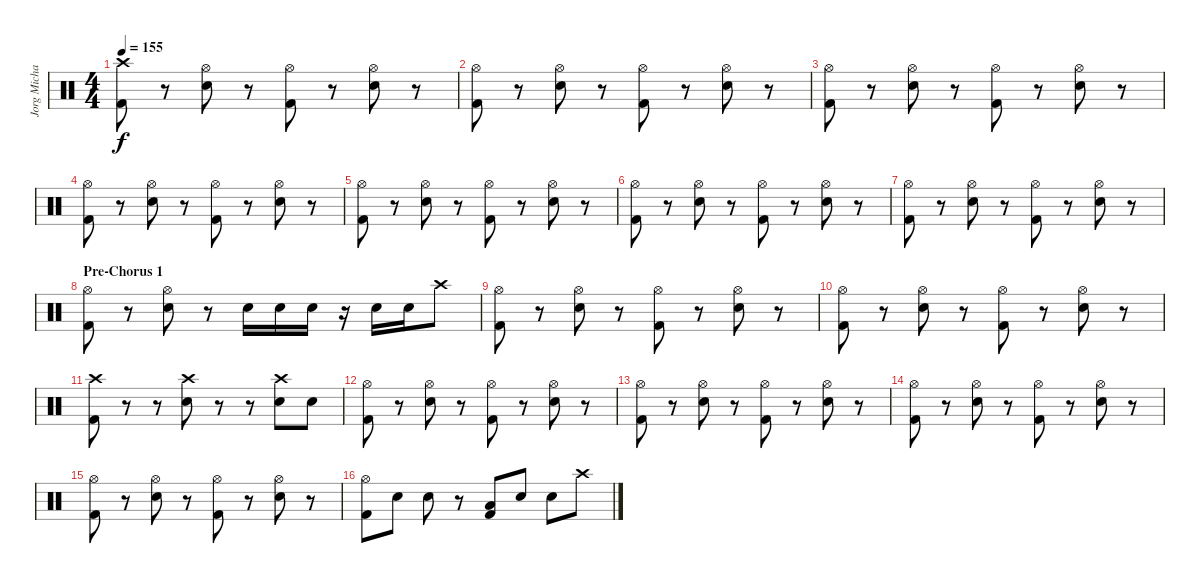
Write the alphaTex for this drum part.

\track ("Jorg Michael - Batteria" "Jorg Micha") {instrument percussion}
\staff {score}
\articulation defaults
\ts (4 4)
\tempo 155
\clef neutral
\ks c
("Kick (hit) 2" "Crash high (hit)").8{dy f} r.8 ("Snare (hit) 2" "Hi-Hat (open)").8 r.8 ("Kick (hit) 2" "Hi-Hat (open)").8 r.8 ("Snare (hit) 2" "Hi-Hat (open)").8 r.8 |
("Kick (hit) 2" "Hi-Hat (open)").8 r.8 ("Snare (hit) 2" "Hi-Hat (open)").8 r.8 ("Kick (hit) 2" "Hi-Hat (open)").8 r.8 ("Snare (hit) 2" "Hi-Hat (open)").8 r.8 |
("Kick (hit) 2" "Hi-Hat (open)").8 r.8 ("Snare (hit) 2" "Hi-Hat (open)").8 r.8 ("Kick (hit) 2" "Hi-Hat (open)").8 r.8 ("Snare (hit) 2" "Hi-Hat (open)").8 r.8 |
("Kick (hit) 2" "Hi-Hat (open)").8 r.8 ("Snare (hit) 2" "Hi-Hat (open)").8 r.8 ("Kick (hit) 2" "Hi-Hat (open)").8 r.8 ("Snare (hit) 2" "Hi-Hat (open)").8 r.8 |
("Kick (hit) 2" "Hi-Hat (open)").8 r.8 ("Snare (hit) 2" "Hi-Hat (open)").8 r.8 ("Kick (hit) 2" "Hi-Hat (open)").8 r.8 ("Snare (hit) 2" "Hi-Hat (open)").8 r.8 |
("Kick (hit) 2" "Hi-Hat (open)").8 r.8 ("Snare (hit) 2" "Hi-Hat (open)").8 r.8 ("Kick (hit) 2" "Hi-Hat (open)").8 r.8 ("Snare (hit) 2" "Hi-Hat (open)").8 r.8 |
("Kick (hit) 2" "Hi-Hat (open)").8 r.8 ("Snare (hit) 2" "Hi-Hat (open)").8 r.8 ("Kick (hit) 2" "Hi-Hat (open)").8 r.8 ("Snare (hit) 2" "Hi-Hat (open)").8 r.8 |
\section ("" "Pre-Chorus 1")
("Kick (hit) 2" "Hi-Hat (open)").8 r.8 ("Snare (hit) 2" "Hi-Hat (open)").8 r.8 "Snare (hit) 2".16 "Snare (hit) 2".16 "Snare (hit) 2".16 r.16 "Snare (hit) 2".16 "Snare (hit) 2".16 "Crash high (hit)".8 |
("Kick (hit) 2" "Hi-Hat (open)").8 r.8 ("Snare (hit) 2" "Hi-Hat (open)").8 r.8 ("Kick (hit) 2" "Hi-Hat (open)").8 r.8 ("Snare (hit) 2" "Hi-Hat (open)").8 r.8 |
("Kick (hit) 2" "Hi-Hat (open)").8 r.8 ("Snare (hit) 2" "Hi-Hat (open)").8 r.8 ("Kick (hit) 2" "Hi-Hat (open)").8 r.8 ("Snare (hit) 2" "Hi-Hat (open)").8 r.8 |
("Kick (hit) 2" "Crash high (hit)").8 r.8 r.8 ("Snare (hit) 2" "Crash high (hit)").8 r.8 r.8 ("Snare (hit) 2" "Crash high (hit)").8 "Snare (hit) 2".8 |
("Kick (hit) 2" "Hi-Hat (open)").8 r.8 ("Snare (hit) 2" "Hi-Hat (open)").8 r.8 ("Kick (hit) 2" "Hi-Hat (open)").8 r.8 ("Snare (hit) 2" "Hi-Hat (open)").8 r.8 |
("Kick (hit) 2" "Hi-Hat (open)").8 r.8 ("Snare (hit) 2" "Hi-Hat (open)").8 r.8 ("Kick (hit) 2" "Hi-Hat (open)").8 r.8 ("Snare (hit) 2" "Hi-Hat (open)").8 r.8 |
("Kick (hit) 2" "Hi-Hat (open)").8 r.8 ("Snare (hit) 2" "Hi-Hat (open)").8 r.8 ("Kick (hit) 2" "Hi-Hat (open)").8 r.8 ("Snare (hit) 2" "Hi-Hat (open)").8 r.8 |
("Kick (hit) 2" "Hi-Hat (open)").8 r.8 ("Snare (hit) 2" "Hi-Hat (open)").8 r.8 ("Kick (hit) 2" "Hi-Hat (open)").8 r.8 ("Snare (hit) 2" "Hi-Hat (open)").8 r.8 |
("Kick (hit) 2" "Hi-Hat (open)").8 "Snare (hit) 2".8 "Snare (hit) 2".8 r.8 ("Kick (hit) 2" "Low Tom (hit)").8 "Snare (hit) 2".8 "Snare (hit) 2".8 "Crash high (hit)".8
